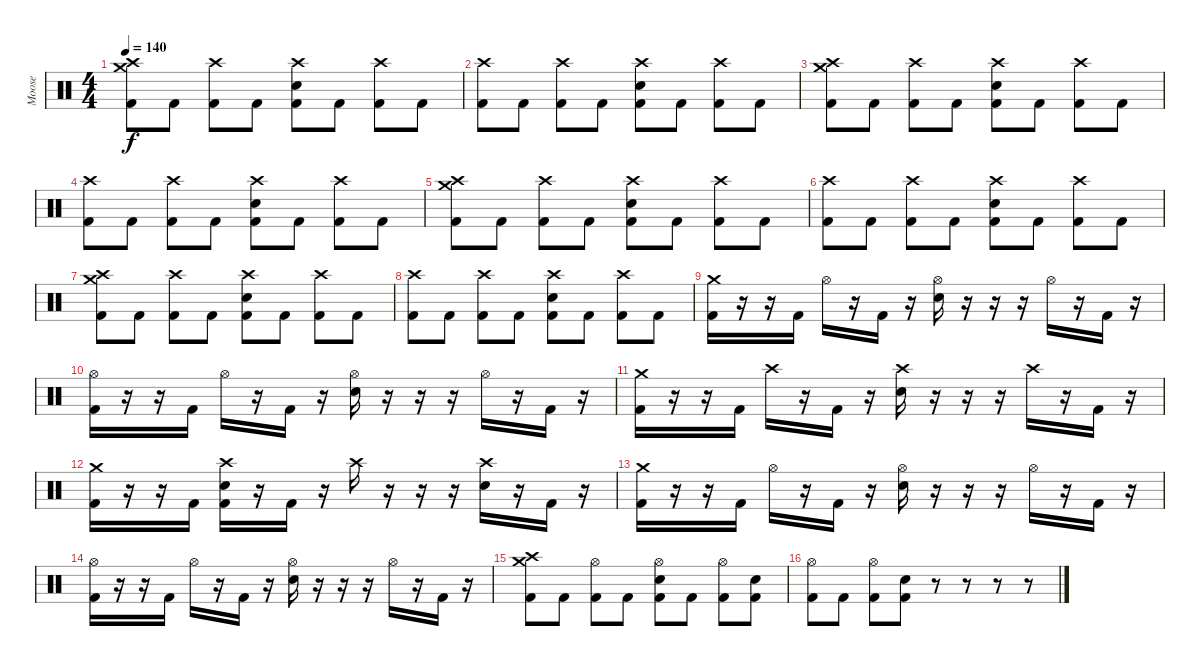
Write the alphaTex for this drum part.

\track ("Moose" "Moose") {instrument percussion}
\staff {score}
\articulation defaults
\ts (4 4)
\tempo 140
\clef neutral
\ks c
("Crash high (hit)" "Crash medium (hit)" "Kick (hit) 2").8{dy f} "Kick (hit) 2".8 ("Crash high (hit)" "Kick (hit) 2").8 "Kick (hit) 2".8 ("Crash high (hit)" "Snare (hit) 2" "Kick (hit) 2").8 "Kick (hit) 2".8 ("Crash high (hit)" "Kick (hit) 2").8 "Kick (hit) 2".8 |
("Crash high (hit)" "Kick (hit) 2").8 "Kick (hit) 2".8 ("Crash high (hit)" "Kick (hit) 2").8 "Kick (hit) 2".8 ("Crash high (hit)" "Snare (hit) 2" "Kick (hit) 2").8 "Kick (hit) 2".8 ("Crash high (hit)" "Kick (hit) 2").8 "Kick (hit) 2".8 |
("Crash high (hit)" "Crash medium (hit)" "Kick (hit) 2").8 "Kick (hit) 2".8 ("Crash high (hit)" "Kick (hit) 2").8 "Kick (hit) 2".8 ("Crash high (hit)" "Snare (hit) 2" "Kick (hit) 2").8 "Kick (hit) 2".8 ("Crash high (hit)" "Kick (hit) 2").8 "Kick (hit) 2".8 |
("Crash high (hit)" "Kick (hit) 2").8 "Kick (hit) 2".8 ("Crash high (hit)" "Kick (hit) 2").8 "Kick (hit) 2".8 ("Crash high (hit)" "Snare (hit) 2" "Kick (hit) 2").8 "Kick (hit) 2".8 ("Crash high (hit)" "Kick (hit) 2").8 "Kick (hit) 2".8 |
("Crash high (hit)" "Crash medium (hit)" "Kick (hit) 2").8 "Kick (hit) 2".8 ("Crash high (hit)" "Kick (hit) 2").8 "Kick (hit) 2".8 ("Crash high (hit)" "Snare (hit) 2" "Kick (hit) 2").8 "Kick (hit) 2".8 ("Crash high (hit)" "Kick (hit) 2").8 "Kick (hit) 2".8 |
("Crash high (hit)" "Kick (hit) 2").8 "Kick (hit) 2".8 ("Crash high (hit)" "Kick (hit) 2").8 "Kick (hit) 2".8 ("Crash high (hit)" "Snare (hit) 2" "Kick (hit) 2").8 "Kick (hit) 2".8 ("Crash high (hit)" "Kick (hit) 2").8 "Kick (hit) 2".8 |
("Crash high (hit)" "Crash medium (hit)" "Kick (hit) 2").8 "Kick (hit) 2".8 ("Crash high (hit)" "Kick (hit) 2").8 "Kick (hit) 2".8 ("Crash high (hit)" "Snare (hit) 2" "Kick (hit) 2").8 "Kick (hit) 2".8 ("Crash high (hit)" "Kick (hit) 2").8 "Kick (hit) 2".8 |
("Crash high (hit)" "Kick (hit) 2").8 "Kick (hit) 2".8 ("Crash high (hit)" "Kick (hit) 2").8 "Kick (hit) 2".8 ("Crash high (hit)" "Snare (hit) 2" "Kick (hit) 2").8 "Kick (hit) 2".8 ("Crash high (hit)" "Kick (hit) 2").8 "Kick (hit) 2".8 |
("Crash medium (hit)" "Kick (hit) 2").16 r.16 r.16 "Kick (hit) 2".16 "Hi-Hat (open)".16 r.16 "Kick (hit) 2".16 r.16 ("Hi-Hat (open)" "Snare (hit) 2").16 r.16 r.16 r.16 "Hi-Hat (open)".16 r.16 "Kick (hit) 2".16 r.16 |
("Hi-Hat (open)" "Kick (hit) 2").16 r.16 r.16 "Kick (hit) 2".16 "Hi-Hat (open)".16 r.16 "Kick (hit) 2".16 r.16 ("Hi-Hat (open)" "Snare (hit) 2").16 r.16 r.16 r.16 "Hi-Hat (open)".16 r.16 "Kick (hit) 2".16 r.16 |
("Crash medium (hit)" "Kick (hit) 2").16 r.16 r.16 "Kick (hit) 2".16 "Crash high (hit)".16 r.16 "Kick (hit) 2".16 r.16 ("Crash high (hit)" "Snare (hit) 2").16 r.16 r.16 r.16 "Crash high (hit)".16 r.16 "Kick (hit) 2".16 r.16 |
("Crash medium (hit)" "Kick (hit) 2").16 r.16 r.16 "Kick (hit) 2".16 ("Crash high (hit)" "Snare (hit) 2" "Kick (hit) 2").16 r.16 "Kick (hit) 2".16 r.16 "Crash high (hit)".16 r.16 r.16 r.16 ("Crash high (hit)" "Snare (hit) 2").16 r.16 "Kick (hit) 2".16 r.16 |
("Crash medium (hit)" "Kick (hit) 2").16 r.16 r.16 "Kick (hit) 2".16 "Hi-Hat (open)".16 r.16 "Kick (hit) 2".16 r.16 ("Hi-Hat (open)" "Snare (hit) 2").16 r.16 r.16 r.16 "Hi-Hat (open)".16 r.16 "Kick (hit) 2".16 r.16 |
("Hi-Hat (open)" "Kick (hit) 2").16 r.16 r.16 "Kick (hit) 2".16 "Hi-Hat (open)".16 r.16 "Kick (hit) 2".16 r.16 ("Hi-Hat (open)" "Snare (hit) 2").16 r.16 r.16 r.16 "Hi-Hat (open)".16 r.16 "Kick (hit) 2".16 r.16 |
("Crash medium (hit)" "Crash high (hit)" "Kick (hit) 2").8 "Kick (hit) 2".8 ("Hi-Hat (open)" "Kick (hit) 2").8 "Kick (hit) 2".8 ("Hi-Hat (open)" "Snare (hit) 2" "Kick (hit) 2").8 "Kick (hit) 2".8 ("Hi-Hat (open)" "Kick (hit) 2").8 ("Snare (hit) 2" "Kick (hit) 2").8 |
("Hi-Hat (open)" "Kick (hit) 2").8 "Kick (hit) 2".8 ("Hi-Hat (open)" "Kick (hit) 2").8 ("Snare (hit) 2" "Kick (hit) 2").8 r.8 r.8 r.8 r.8
